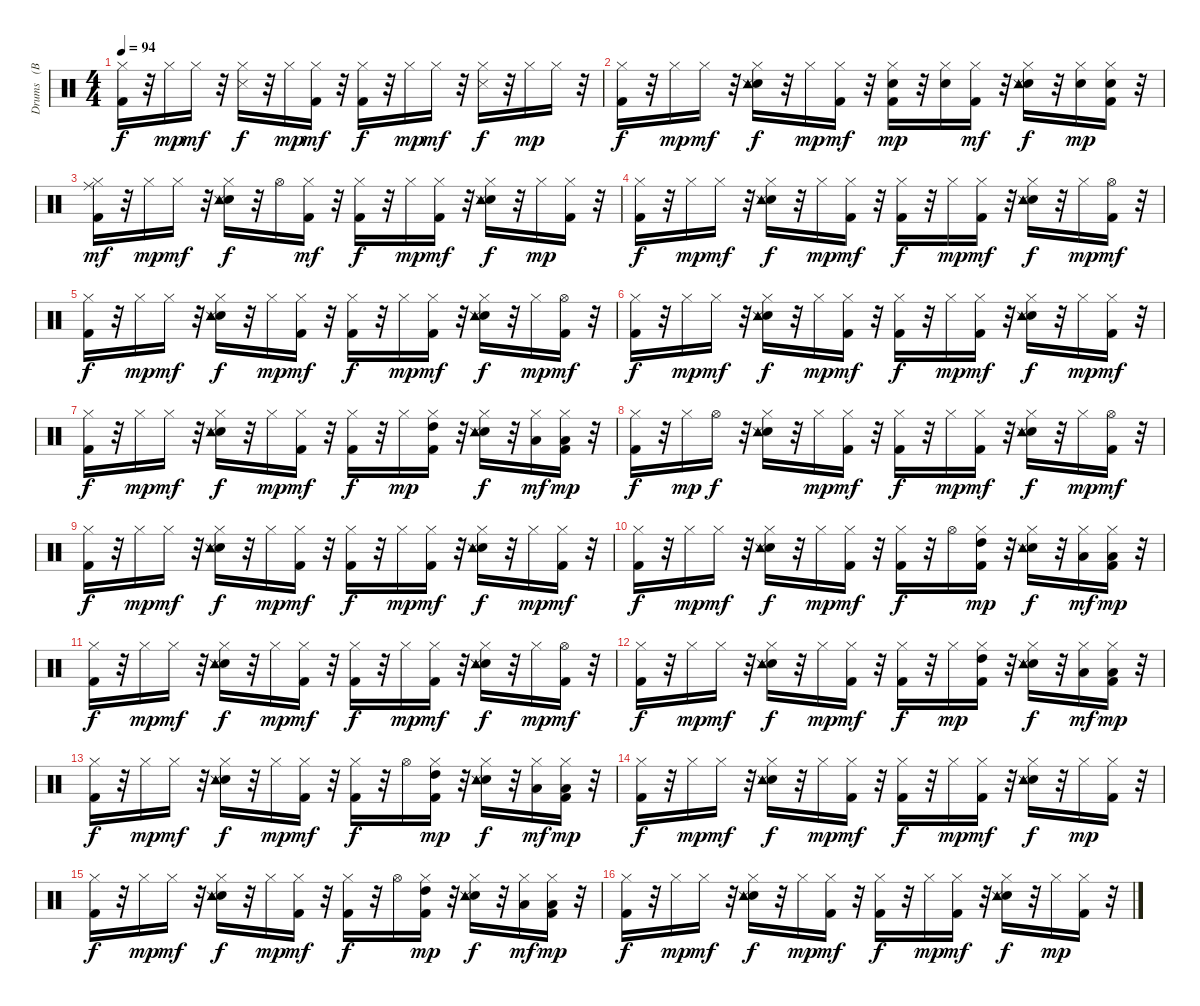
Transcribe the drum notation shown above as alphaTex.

\track ("Drums   (BB)" "Drums   (B") {instrument percussion}
\staff {score}
\articulation defaults
\ts (4 4)
\tempo 94
\clef neutral
\ks c
("Kick (hit) 2" "Hi-Hat (closed)").16{dy f} r.32 "Hi-Hat (closed)".16{dy mp} "Hi-Hat (closed)".16{dy mf} r.32 ("Hi-Hat (closed)" "Snare (side stick) 3").16{dy f} r.32 "Hi-Hat (closed)".16{dy mp} ("Kick (hit) 2" "Hi-Hat (closed)").16{dy mf} r.32 ("Kick (hit) 2" "Hi-Hat (closed)").16{dy f} r.32 "Hi-Hat (closed)".16{dy mp} "Hi-Hat (closed)".16{dy mf} r.32 ("Hi-Hat (closed)" "Snare (side stick) 3").16{dy f} r.32 "Hi-Hat (closed)".16{dy mp} "Hi-Hat (closed)".16 r.32 |
("Kick (hit) 2" "Hi-Hat (closed)").16{dy f} r.32 "Hi-Hat (closed)".16{dy mp} "Hi-Hat (closed)".16{dy mf} r.32 ("Snare (hit) 2" "Hi-Hat (closed)" "Snare (side stick) 3" "Tambourine (hit)").16{dy f} r.32 "Hi-Hat (closed)".16{dy mp} ("Kick (hit) 2" "Hi-Hat (closed)").16{dy mf} r.32 ("Kick (hit) 2" "Snare (hit) 2" "Hi-Hat (closed)").16{dy mp} r.32 ("Snare (hit) 2" "Hi-Hat (closed)").16 ("Kick (hit) 2" "Hi-Hat (closed)").16{dy mf} r.32 ("Snare (hit) 2" "Hi-Hat (closed)" "Snare (side stick) 3" "Tambourine (hit)").16{dy f} r.32 ("Snare (hit) 2" "Hi-Hat (closed)").16{dy mp} ("Kick (hit) 2" "Snare (hit) 2" "Hi-Hat (closed)").16 r.32 |
("Kick (hit) 2" "Hi-Hat (closed)" "Ride (middle)").16{dy mf} r.32 "Hi-Hat (closed)".16{dy mp} "Hi-Hat (closed)".16{dy mf} r.32 ("Snare (hit) 2" "Hi-Hat (closed)" "Snare (side stick) 3" "Tambourine (hit)").16{dy f} r.32 "Hi-Hat (open)".16 ("Kick (hit) 2" "Hi-Hat (closed)").16{dy mf} r.32 ("Kick (hit) 2" "Hi-Hat (closed)").16{dy f} r.32 "Hi-Hat (closed)".16{dy mp} ("Kick (hit) 2" "Hi-Hat (closed)").16{dy mf} r.32 ("Snare (hit) 2" "Hi-Hat (closed)" "Snare (side stick) 3" "Tambourine (hit)").16{dy f} r.32 "Hi-Hat (closed)".16{dy mp} ("Kick (hit) 2" "Hi-Hat (closed)").16 r.32 |
("Kick (hit) 2" "Hi-Hat (closed)").16{dy f} r.32 "Hi-Hat (closed)".16{dy mp} "Hi-Hat (closed)".16{dy mf} r.32 ("Snare (hit) 2" "Hi-Hat (closed)" "Snare (side stick) 3" "Tambourine (hit)").16{dy f} r.32 "Hi-Hat (closed)".16{dy mp} ("Kick (hit) 2" "Hi-Hat (closed)").16{dy mf} r.32 ("Kick (hit) 2" "Hi-Hat (closed)").16{dy f} r.32 "Hi-Hat (closed)".16{dy mp} ("Kick (hit) 2" "Hi-Hat (closed)").16{dy mf} r.32 ("Snare (hit) 2" "Hi-Hat (closed)" "Snare (side stick) 3" "Tambourine (hit)").16{dy f} r.32 "Hi-Hat (closed)".16{dy mp} ("Kick (hit) 2" "Hi-Hat (open)").16{dy mf} r.32 |
("Kick (hit) 2" "Hi-Hat (closed)").16{dy f} r.32 "Hi-Hat (closed)".16{dy mp} "Hi-Hat (closed)".16{dy mf} r.32 ("Snare (hit) 2" "Hi-Hat (closed)" "Snare (side stick) 3" "Tambourine (hit)").16{dy f} r.32 "Hi-Hat (closed)".16{dy mp} ("Kick (hit) 2" "Hi-Hat (closed)").16{dy mf} r.32 ("Kick (hit) 2" "Hi-Hat (closed)").16{dy f} r.32 "Hi-Hat (closed)".16{dy mp} ("Kick (hit) 2" "Hi-Hat (closed)").16{dy mf} r.32 ("Snare (hit) 2" "Hi-Hat (closed)" "Snare (side stick) 3" "Tambourine (hit)").16{dy f} r.32 "Hi-Hat (closed)".16{dy mp} ("Kick (hit) 2" "Hi-Hat (open)").16{dy mf} r.32 |
("Kick (hit) 2" "Hi-Hat (closed)").16{dy f} r.32 "Hi-Hat (closed)".16{dy mp} "Hi-Hat (closed)".16{dy mf} r.32 ("Snare (hit) 2" "Hi-Hat (closed)" "Snare (side stick) 3" "Tambourine (hit)").16{dy f} r.32 "Hi-Hat (closed)".16{dy mp} ("Kick (hit) 2" "Hi-Hat (closed)").16{dy mf} r.32 ("Kick (hit) 2" "Hi-Hat (closed)").16{dy f} r.32 "Hi-Hat (closed)".16{dy mp} ("Kick (hit) 2" "Hi-Hat (closed)").16{dy mf} r.32 ("Snare (hit) 2" "Hi-Hat (closed)" "Snare (side stick) 3" "Tambourine (hit)").16{dy f} r.32 "Hi-Hat (closed)".16{dy mp} ("Kick (hit) 2" "Hi-Hat (closed)").16{dy mf} r.32 |
("Kick (hit) 2" "Hi-Hat (closed)").16{dy f} r.32 "Hi-Hat (closed)".16{dy mp} "Hi-Hat (closed)".16{dy mf} r.32 ("Snare (hit) 2" "Hi-Hat (closed)" "Snare (side stick) 3" "Tambourine (hit)").16{dy f} r.32 "Hi-Hat (closed)".16{dy mp} ("Kick (hit) 2" "Hi-Hat (closed)").16{dy mf} r.32 ("Kick (hit) 2" "Hi-Hat (closed)").16{dy f} r.32 "Hi-Hat (closed)".16{dy mp} ("Kick (hit) 2" "Hi-Hat (closed)" "High Tom (hit)").16 r.32 ("Snare (hit) 2" "Hi-Hat (closed)" "Snare (side stick) 3" "Tambourine (hit)").16{dy f} r.32 ("Hi-Hat (closed)" "Low Tom (hit)").16{dy mf} ("Kick (hit) 2" "Hi-Hat (closed)" "Low Tom (hit)").16{dy mp} r.32 |
("Kick (hit) 2" "Hi-Hat (closed)").16{dy f} r.32 "Hi-Hat (closed)".16{dy mp} "Hi-Hat (open)".16{dy f} r.32 ("Snare (hit) 2" "Hi-Hat (closed)" "Snare (side stick) 3" "Tambourine (hit)").16 r.32 "Hi-Hat (closed)".16{dy mp} ("Kick (hit) 2" "Hi-Hat (closed)").16{dy mf} r.32 ("Kick (hit) 2" "Hi-Hat (closed)").16{dy f} r.32 "Hi-Hat (closed)".16{dy mp} ("Kick (hit) 2" "Hi-Hat (closed)").16{dy mf} r.32 ("Snare (hit) 2" "Hi-Hat (closed)" "Snare (side stick) 3" "Tambourine (hit)").16{dy f} r.32 "Hi-Hat (closed)".16{dy mp} ("Kick (hit) 2" "Hi-Hat (open)").16{dy mf} r.32 |
("Kick (hit) 2" "Hi-Hat (closed)").16{dy f} r.32 "Hi-Hat (closed)".16{dy mp} "Hi-Hat (closed)".16{dy mf} r.32 ("Snare (hit) 2" "Hi-Hat (closed)" "Snare (side stick) 3" "Tambourine (hit)").16{dy f} r.32 "Hi-Hat (closed)".16{dy mp} ("Kick (hit) 2" "Hi-Hat (closed)").16{dy mf} r.32 ("Kick (hit) 2" "Hi-Hat (closed)").16{dy f} r.32 "Hi-Hat (closed)".16{dy mp} ("Kick (hit) 2" "Hi-Hat (closed)").16{dy mf} r.32 ("Snare (hit) 2" "Hi-Hat (closed)" "Snare (side stick) 3" "Tambourine (hit)").16{dy f} r.32 "Hi-Hat (closed)".16{dy mp} ("Kick (hit) 2" "Hi-Hat (closed)").16{dy mf} r.32 |
("Kick (hit) 2" "Hi-Hat (closed)").16{dy f} r.32 "Hi-Hat (closed)".16{dy mp} "Hi-Hat (closed)".16{dy mf} r.32 ("Snare (hit) 2" "Hi-Hat (closed)" "Snare (side stick) 3" "Tambourine (hit)").16{dy f} r.32 "Hi-Hat (closed)".16{dy mp} ("Kick (hit) 2" "Hi-Hat (closed)").16{dy mf} r.32 ("Kick (hit) 2" "Hi-Hat (closed)").16{dy f} r.32 "Hi-Hat (open)".16 ("Kick (hit) 2" "Hi-Hat (closed)" "High Tom (hit)").16{dy mp} r.32 ("Snare (hit) 2" "Hi-Hat (closed)" "Snare (side stick) 3" "Tambourine (hit)").16{dy f} r.32 ("Hi-Hat (closed)" "Low Tom (hit)").16{dy mf} ("Kick (hit) 2" "Hi-Hat (closed)" "Low Tom (hit)").16{dy mp} r.32 |
("Kick (hit) 2" "Hi-Hat (closed)").16{dy f} r.32 "Hi-Hat (closed)".16{dy mp} "Hi-Hat (closed)".16{dy mf} r.32 ("Snare (hit) 2" "Hi-Hat (closed)" "Snare (side stick) 3" "Tambourine (hit)").16{dy f} r.32 "Hi-Hat (closed)".16{dy mp} ("Kick (hit) 2" "Hi-Hat (closed)").16{dy mf} r.32 ("Kick (hit) 2" "Hi-Hat (closed)").16{dy f} r.32 "Hi-Hat (closed)".16{dy mp} ("Kick (hit) 2" "Hi-Hat (closed)").16{dy mf} r.32 ("Snare (hit) 2" "Hi-Hat (closed)" "Snare (side stick) 3" "Tambourine (hit)").16{dy f} r.32 "Hi-Hat (closed)".16{dy mp} ("Kick (hit) 2" "Hi-Hat (open)").16{dy mf} r.32 |
("Kick (hit) 2" "Hi-Hat (closed)").16{dy f} r.32 "Hi-Hat (closed)".16{dy mp} "Hi-Hat (closed)".16{dy mf} r.32 ("Snare (hit) 2" "Hi-Hat (closed)" "Snare (side stick) 3" "Tambourine (hit)").16{dy f} r.32 "Hi-Hat (closed)".16{dy mp} ("Kick (hit) 2" "Hi-Hat (closed)").16{dy mf} r.32 ("Kick (hit) 2" "Hi-Hat (closed)").16{dy f} r.32 "Hi-Hat (closed)".16{dy mp} ("Kick (hit) 2" "Hi-Hat (closed)" "High Tom (hit)").16 r.32 ("Snare (hit) 2" "Hi-Hat (closed)" "Snare (side stick) 3" "Tambourine (hit)").16{dy f} r.32 ("Hi-Hat (closed)" "Low Tom (hit)").16{dy mf} ("Kick (hit) 2" "Hi-Hat (closed)" "Low Tom (hit)").16{dy mp} r.32 |
("Kick (hit) 2" "Hi-Hat (closed)").16{dy f} r.32 "Hi-Hat (closed)".16{dy mp} "Hi-Hat (closed)".16{dy mf} r.32 ("Snare (hit) 2" "Hi-Hat (closed)" "Snare (side stick) 3" "Tambourine (hit)").16{dy f} r.32 "Hi-Hat (closed)".16{dy mp} ("Kick (hit) 2" "Hi-Hat (closed)").16{dy mf} r.32 ("Kick (hit) 2" "Hi-Hat (closed)").16{dy f} r.32 "Hi-Hat (open)".16 ("Kick (hit) 2" "Hi-Hat (closed)" "High Tom (hit)").16{dy mp} r.32 ("Snare (hit) 2" "Hi-Hat (closed)" "Snare (side stick) 3" "Tambourine (hit)").16{dy f} r.32 ("Hi-Hat (closed)" "Low Tom (hit)").16{dy mf} ("Kick (hit) 2" "Hi-Hat (closed)" "Low Tom (hit)").16{dy mp} r.32 |
("Kick (hit) 2" "Hi-Hat (closed)").16{dy f} r.32 "Hi-Hat (closed)".16{dy mp} "Hi-Hat (closed)".16{dy mf} r.32 ("Snare (hit) 2" "Hi-Hat (closed)" "Snare (side stick) 3" "Tambourine (hit)").16{dy f} r.32 "Hi-Hat (closed)".16{dy mp} ("Kick (hit) 2" "Hi-Hat (closed)").16{dy mf} r.32 ("Kick (hit) 2" "Hi-Hat (closed)").16{dy f} r.32 "Hi-Hat (closed)".16{dy mp} ("Kick (hit) 2" "Hi-Hat (closed)").16{dy mf} r.32 ("Snare (hit) 2" "Hi-Hat (closed)" "Snare (side stick) 3" "Tambourine (hit)").16{dy f} r.32 "Hi-Hat (closed)".16{dy mp} ("Kick (hit) 2" "Hi-Hat (closed)").16 r.32 |
("Kick (hit) 2" "Hi-Hat (closed)").16{dy f} r.32 "Hi-Hat (closed)".16{dy mp} "Hi-Hat (closed)".16{dy mf} r.32 ("Snare (hit) 2" "Hi-Hat (closed)" "Snare (side stick) 3" "Tambourine (hit)").16{dy f} r.32 "Hi-Hat (closed)".16{dy mp} ("Kick (hit) 2" "Hi-Hat (closed)").16{dy mf} r.32 ("Kick (hit) 2" "Hi-Hat (closed)").16{dy f} r.32 "Hi-Hat (open)".16 ("Kick (hit) 2" "Hi-Hat (closed)" "High Tom (hit)").16{dy mp} r.32 ("Snare (hit) 2" "Hi-Hat (closed)" "Snare (side stick) 3" "Tambourine (hit)").16{dy f} r.32 ("Hi-Hat (closed)" "Low Tom (hit)").16{dy mf} ("Kick (hit) 2" "Hi-Hat (closed)" "Low Tom (hit)").16{dy mp} r.32 |
("Kick (hit) 2" "Hi-Hat (closed)").16{dy f} r.32 "Hi-Hat (closed)".16{dy mp} "Hi-Hat (closed)".16{dy mf} r.32 ("Snare (hit) 2" "Hi-Hat (closed)" "Snare (side stick) 3" "Tambourine (hit)").16{dy f} r.32 "Hi-Hat (closed)".16{dy mp} ("Kick (hit) 2" "Hi-Hat (closed)").16{dy mf} r.32 ("Kick (hit) 2" "Hi-Hat (closed)").16{dy f} r.32 "Hi-Hat (closed)".16{dy mp} ("Kick (hit) 2" "Hi-Hat (closed)").16{dy mf} r.32 ("Snare (hit) 2" "Hi-Hat (closed)" "Snare (side stick) 3" "Tambourine (hit)").16{dy f} r.32 "Hi-Hat (closed)".16{dy mp} ("Kick (hit) 2" "Hi-Hat (closed)").16 r.32
